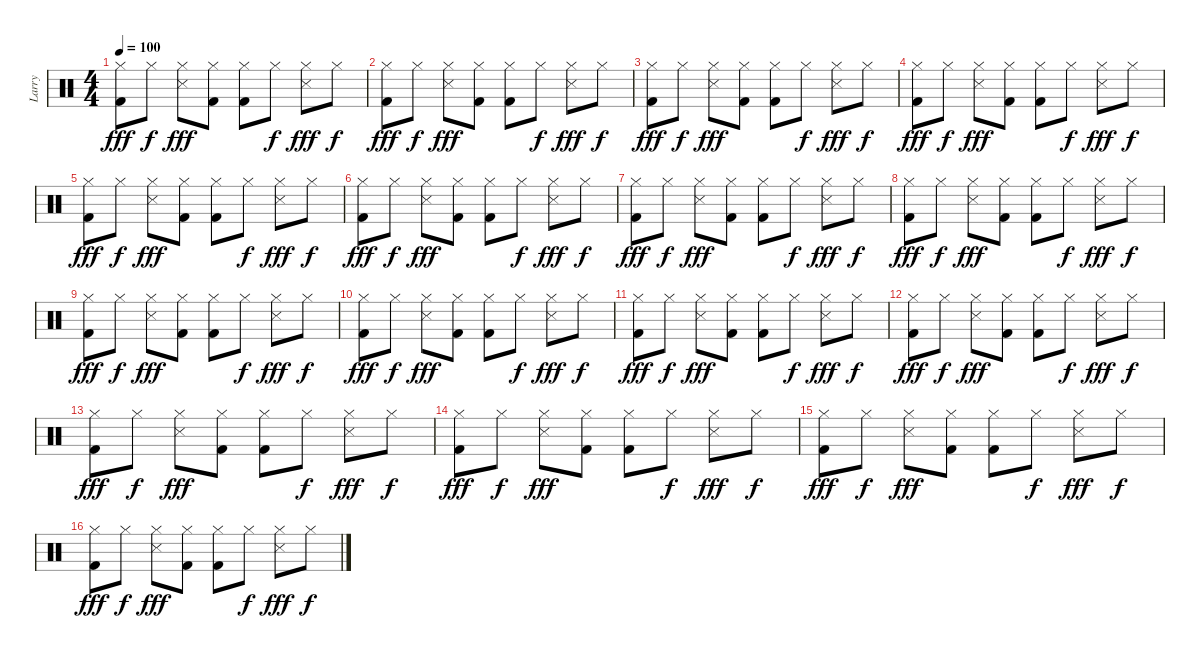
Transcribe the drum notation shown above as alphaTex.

\track ("Larry" "Larry") {instrument percussion}
\staff {score}
\articulation defaults
\ts (4 4)
\tempo 100
\clef neutral
\ks c
("Hi-Hat (closed)" "Kick (hit) 2").8{dy fff} "Hi-Hat (closed)".8{dy f} ("Hi-Hat (closed)" "Snare (side stick) 3").8{dy fff} ("Hi-Hat (closed)" "Kick (hit) 2").8 ("Hi-Hat (closed)" "Kick (hit) 2").8 "Hi-Hat (closed)".8{dy f} ("Hi-Hat (closed)" "Snare (side stick) 3").8{dy fff} "Hi-Hat (closed)".8{dy f} |
("Kick (hit) 2" "Hi-Hat (closed)").8{dy fff} "Hi-Hat (closed)".8{dy f} ("Snare (side stick) 3" "Hi-Hat (closed)").8{dy fff} ("Kick (hit) 2" "Hi-Hat (closed)").8 ("Kick (hit) 2" "Hi-Hat (closed)").8 "Hi-Hat (closed)".8{dy f} ("Snare (side stick) 3" "Hi-Hat (closed)").8{dy fff} "Hi-Hat (closed)".8{dy f} |
("Kick (hit) 2" "Hi-Hat (closed)").8{dy fff} "Hi-Hat (closed)".8{dy f} ("Snare (side stick) 3" "Hi-Hat (closed)").8{dy fff} ("Kick (hit) 2" "Hi-Hat (closed)").8 ("Kick (hit) 2" "Hi-Hat (closed)").8 "Hi-Hat (closed)".8{dy f} ("Snare (side stick) 3" "Hi-Hat (closed)").8{dy fff} "Hi-Hat (closed)".8{dy f} |
("Hi-Hat (closed)" "Kick (hit) 2").8{dy fff} "Hi-Hat (closed)".8{dy f} ("Hi-Hat (closed)" "Snare (side stick) 3").8{dy fff} ("Hi-Hat (closed)" "Kick (hit) 2").8 ("Hi-Hat (closed)" "Kick (hit) 2").8 "Hi-Hat (closed)".8{dy f} ("Hi-Hat (closed)" "Snare (side stick) 3").8{dy fff} "Hi-Hat (closed)".8{dy f} |
("Hi-Hat (closed)" "Kick (hit) 2").8{dy fff} "Hi-Hat (closed)".8{dy f} ("Hi-Hat (closed)" "Snare (side stick) 3").8{dy fff} ("Hi-Hat (closed)" "Kick (hit) 2").8 ("Hi-Hat (closed)" "Kick (hit) 2").8 "Hi-Hat (closed)".8{dy f} ("Hi-Hat (closed)" "Snare (side stick) 3").8{dy fff} "Hi-Hat (closed)".8{dy f} |
("Kick (hit) 2" "Hi-Hat (closed)").8{dy fff} "Hi-Hat (closed)".8{dy f} ("Snare (side stick) 3" "Hi-Hat (closed)").8{dy fff} ("Kick (hit) 2" "Hi-Hat (closed)").8 ("Kick (hit) 2" "Hi-Hat (closed)").8 "Hi-Hat (closed)".8{dy f} ("Snare (side stick) 3" "Hi-Hat (closed)").8{dy fff} "Hi-Hat (closed)".8{dy f} |
("Kick (hit) 2" "Hi-Hat (closed)").8{dy fff} "Hi-Hat (closed)".8{dy f} ("Snare (side stick) 3" "Hi-Hat (closed)").8{dy fff} ("Kick (hit) 2" "Hi-Hat (closed)").8 ("Kick (hit) 2" "Hi-Hat (closed)").8 "Hi-Hat (closed)".8{dy f} ("Snare (side stick) 3" "Hi-Hat (closed)").8{dy fff} "Hi-Hat (closed)".8{dy f} |
("Hi-Hat (closed)" "Kick (hit) 2").8{dy fff} "Hi-Hat (closed)".8{dy f} ("Hi-Hat (closed)" "Snare (side stick) 3").8{dy fff} ("Hi-Hat (closed)" "Kick (hit) 2").8 ("Hi-Hat (closed)" "Kick (hit) 2").8 "Hi-Hat (closed)".8{dy f} ("Hi-Hat (closed)" "Snare (side stick) 3").8{dy fff} "Hi-Hat (closed)".8{dy f} |
("Kick (hit) 2" "Hi-Hat (closed)").8{dy fff} "Hi-Hat (closed)".8{dy f} ("Snare (side stick) 3" "Hi-Hat (closed)").8{dy fff} ("Kick (hit) 2" "Hi-Hat (closed)").8 ("Kick (hit) 2" "Hi-Hat (closed)").8 "Hi-Hat (closed)".8{dy f} ("Snare (side stick) 3" "Hi-Hat (closed)").8{dy fff} "Hi-Hat (closed)".8{dy f} |
("Kick (hit) 2" "Hi-Hat (closed)").8{dy fff} "Hi-Hat (closed)".8{dy f} ("Snare (side stick) 3" "Hi-Hat (closed)").8{dy fff} ("Kick (hit) 2" "Hi-Hat (closed)").8 ("Kick (hit) 2" "Hi-Hat (closed)").8 "Hi-Hat (closed)".8{dy f} ("Snare (side stick) 3" "Hi-Hat (closed)").8{dy fff} "Hi-Hat (closed)".8{dy f} |
("Hi-Hat (closed)" "Kick (hit) 2").8{dy fff} "Hi-Hat (closed)".8{dy f} ("Hi-Hat (closed)" "Snare (side stick) 3").8{dy fff} ("Hi-Hat (closed)" "Kick (hit) 2").8 ("Hi-Hat (closed)" "Kick (hit) 2").8 "Hi-Hat (closed)".8{dy f} ("Hi-Hat (closed)" "Snare (side stick) 3").8{dy fff} "Hi-Hat (closed)".8{dy f} |
("Hi-Hat (closed)" "Kick (hit) 2").8{dy fff} "Hi-Hat (closed)".8{dy f} ("Hi-Hat (closed)" "Snare (side stick) 3").8{dy fff} ("Hi-Hat (closed)" "Kick (hit) 2").8 ("Hi-Hat (closed)" "Kick (hit) 2").8 "Hi-Hat (closed)".8{dy f} ("Hi-Hat (closed)" "Snare (side stick) 3").8{dy fff} "Hi-Hat (closed)".8{dy f} |
("Kick (hit) 2" "Hi-Hat (closed)").8{dy fff} "Hi-Hat (closed)".8{dy f} ("Snare (side stick) 3" "Hi-Hat (closed)").8{dy fff} ("Kick (hit) 2" "Hi-Hat (closed)").8 ("Kick (hit) 2" "Hi-Hat (closed)").8 "Hi-Hat (closed)".8{dy f} ("Snare (side stick) 3" "Hi-Hat (closed)").8{dy fff} "Hi-Hat (closed)".8{dy f} |
("Kick (hit) 2" "Hi-Hat (closed)").8{dy fff} "Hi-Hat (closed)".8{dy f} ("Snare (side stick) 3" "Hi-Hat (closed)").8{dy fff} ("Kick (hit) 2" "Hi-Hat (closed)").8 ("Kick (hit) 2" "Hi-Hat (closed)").8 "Hi-Hat (closed)".8{dy f} ("Snare (side stick) 3" "Hi-Hat (closed)").8{dy fff} "Hi-Hat (closed)".8{dy f} |
("Hi-Hat (closed)" "Kick (hit) 2").8{dy fff} "Hi-Hat (closed)".8{dy f} ("Hi-Hat (closed)" "Snare (side stick) 3").8{dy fff} ("Hi-Hat (closed)" "Kick (hit) 2").8 ("Hi-Hat (closed)" "Kick (hit) 2").8 "Hi-Hat (closed)".8{dy f} ("Hi-Hat (closed)" "Snare (side stick) 3").8{dy fff} "Hi-Hat (closed)".8{dy f} |
("Kick (hit) 2" "Hi-Hat (closed)").8{dy fff} "Hi-Hat (closed)".8{dy f} ("Snare (side stick) 3" "Hi-Hat (closed)").8{dy fff} ("Kick (hit) 2" "Hi-Hat (closed)").8 ("Kick (hit) 2" "Hi-Hat (closed)").8 "Hi-Hat (closed)".8{dy f} ("Snare (side stick) 3" "Hi-Hat (closed)").8{dy fff} "Hi-Hat (closed)".8{dy f}
